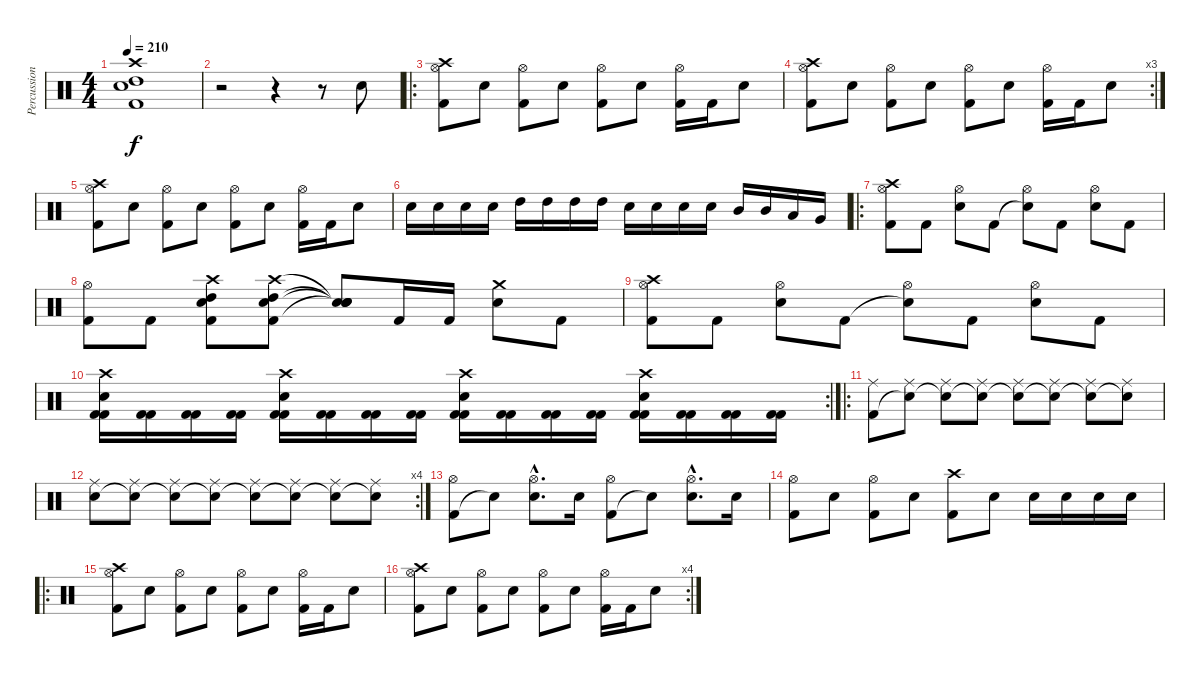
\track ("Percussion" "Percussion") {instrument percussion}
\staff {score}
\articulation defaults
\ts (4 4)
\tempo 210
\clef neutral
\ks c
("Electric Snare (hit)" "Kick (hit) 2" "High Tom (hit)" "Crash high (hit)").1{dy f} |
r.2 r.4 r.8 "Electric Snare (hit)".8 |
\ro
("Kick (hit) 2" "Hi-Hat (open)" "Crash high (hit)").8 "Electric Snare (hit)".8 ("Kick (hit) 2" "Hi-Hat (open)").8 "Electric Snare (hit)".8 ("Kick (hit) 2" "Hi-Hat (open)").8 "Electric Snare (hit)".8 ("Kick (hit) 2" "Hi-Hat (open)").16 "Kick (hit) 2".16 "Electric Snare (hit)".8 |
\rc 3
("Kick (hit) 2" "Hi-Hat (open)" "Crash high (hit)").8 "Electric Snare (hit)".8 ("Kick (hit) 2" "Hi-Hat (open)").8 "Electric Snare (hit)".8 ("Kick (hit) 2" "Hi-Hat (open)").8 "Electric Snare (hit)".8 ("Kick (hit) 2" "Hi-Hat (open)").16 "Kick (hit) 2".16 "Electric Snare (hit)".8 |
("Kick (hit) 2" "Hi-Hat (open)" "Crash high (hit)").8 "Electric Snare (hit)".8 ("Kick (hit) 2" "Hi-Hat (open)").8 "Electric Snare (hit)".8 ("Kick (hit) 2" "Hi-Hat (open)").8 "Electric Snare (hit)".8 ("Kick (hit) 2" "Hi-Hat (open)").16 "Kick (hit) 2".16 "Electric Snare (hit)".8 |
"Electric Snare (hit)".16 "Electric Snare (hit)".16 "Electric Snare (hit)".16 "Electric Snare (hit)".16 "High Tom (hit)".16 "High Tom (hit)".16 "High Tom (hit)".16 "High Tom (hit)".16 "Electric Snare (hit)".16 "Electric Snare (hit)".16 "Electric Snare (hit)".16 "Electric Snare (hit)".16 "Mid Tom (hit)".16 "Mid Tom (hit)".16 "Low Tom (hit)".16 "Very Low Tom (hit)".16 |
\ro
("Kick (hit) 2" "Hi-Hat (open)" "Crash high (hit)").8 "Kick (hit) 2".8 ("Electric Snare (hit)" "Hi-Hat (open)").8 "Kick (hit) 2".8 ("Snare (hit)"{t} "Hi-Hat (open)").8 "Kick (hit) 2".8 ("Electric Snare (hit)" "Hi-Hat (open)").8 "Kick (hit) 2".8 |
("Kick (hit) 2" "Hi-Hat (open)").8 "Kick (hit) 2".8 ("Electric Snare (hit)" "Kick (hit) 2" "High Tom (hit)" "Crash high (hit)").8 ("Electric Snare (hit)" "Kick (hit) 2" "High Tom (hit)" "Crash high (hit)").8 ("Snare (hit)"{t} "Snare (hit)"{t} "Snare (hit)"{t} "Snare (hit)"{t}).8 "Kick (hit) 2".16 "Kick (hit) 2".16 ("Electric Snare (hit)" "Crash medium (hit)").8 "Kick (hit) 2".8 |
("Kick (hit) 2" "Hi-Hat (open)" "Crash high (hit)").8 "Kick (hit) 2".8 ("Electric Snare (hit)" "Hi-Hat (open)").8 "Kick (hit) 2".8 ("Snare (hit)"{t} "Hi-Hat (open)").8 "Kick (hit) 2".8 ("Electric Snare (hit)" "Hi-Hat (open)").8 "Kick (hit) 2".8 |
\rc 2
("Electric Snare (hit)" "Crash high (hit)" "Kick (hit) 2" "Kick (hit) 2").16 ("Kick (hit) 2" "Kick (hit) 2").16 ("Kick (hit) 2" "Kick (hit) 2").16 ("Kick (hit) 2" "Kick (hit) 2").16 ("Electric Snare (hit)" "Crash high (hit)" "Kick (hit) 2" "Kick (hit) 2").16 ("Kick (hit) 2" "Kick (hit) 2").16 ("Kick (hit) 2" "Kick (hit) 2").16 ("Kick (hit) 2" "Kick (hit) 2").16 ("Electric Snare (hit)" "Crash high (hit)" "Kick (hit) 2" "Kick (hit) 2").16 ("Kick (hit) 2" "Kick (hit) 2").16 ("Kick (hit) 2" "Kick (hit) 2").16 ("Kick (hit) 2" "Kick (hit) 2").16 ("Electric Snare (hit)" "Crash high (hit)" "Kick (hit) 2" "Kick (hit) 2").16 ("Kick (hit) 2" "Kick (hit) 2").16 ("Kick (hit) 2" "Kick (hit) 2").16 ("Kick (hit) 2" "Kick (hit) 2").16 |
\ro
("Kick (hit) 2" "Ride (middle)").8 ("Snare (hit)"{t} "Ride (middle)").8 ("Snare (hit)"{t} "Ride (middle)").8 ("Snare (hit)"{t} "Ride (middle)").8 ("Snare (hit)"{t} "Ride (middle)").8 ("Snare (hit)"{t} "Ride (middle)").8 ("Snare (hit)"{t} "Ride (middle)").8 ("Snare (hit)"{t} "Ride (middle)").8 |
\rc 4
("Electric Snare (hit)" "Ride (middle)").8 ("Snare (hit)"{t} "Ride (middle)").8 ("Snare (hit)"{t} "Ride (middle)").8 ("Snare (hit)"{t} "Ride (middle)").8 ("Snare (hit)"{t} "Ride (middle)").8 ("Snare (hit)"{t} "Ride (middle)").8 ("Snare (hit)"{t} "Ride (middle)").8 ("Snare (hit)"{t} "Ride (middle)").8 |
("Kick (hit) 2" "Hi-Hat (open)").8 "Snare (hit)"{t}.8 ("Electric Snare (hit)"{hac} "Hi-Hat (open)"{hac}).8{d} "Electric Snare (hit)".16 ("Kick (hit) 2" "Hi-Hat (open)").8 "Snare (hit)"{t}.8 ("Electric Snare (hit)"{hac} "Hi-Hat (open)"{hac}).8{d} "Electric Snare (hit)".16 |
("Kick (hit) 2" "Hi-Hat (open)").8 "Electric Snare (hit)".8 ("Kick (hit) 2" "Hi-Hat (open)").8 "Electric Snare (hit)".8 ("Kick (hit) 2" "Crash high (hit)").8 "Electric Snare (hit)".8 "Electric Snare (hit)".16 "Electric Snare (hit)".16 "Electric Snare (hit)".16 "Electric Snare (hit)".16 |
\ro
("Kick (hit) 2" "Hi-Hat (open)" "Crash high (hit)").8 "Electric Snare (hit)".8 ("Kick (hit) 2" "Hi-Hat (open)").8 "Electric Snare (hit)".8 ("Kick (hit) 2" "Hi-Hat (open)").8 "Electric Snare (hit)".8 ("Kick (hit) 2" "Hi-Hat (open)").16 "Kick (hit) 2".16 "Electric Snare (hit)".8 |
\rc 4
("Kick (hit) 2" "Hi-Hat (open)" "Crash high (hit)").8 "Electric Snare (hit)".8 ("Kick (hit) 2" "Hi-Hat (open)").8 "Electric Snare (hit)".8 ("Kick (hit) 2" "Hi-Hat (open)").8 "Electric Snare (hit)".8 ("Kick (hit) 2" "Hi-Hat (open)").16 "Kick (hit) 2".16 "Electric Snare (hit)".8
